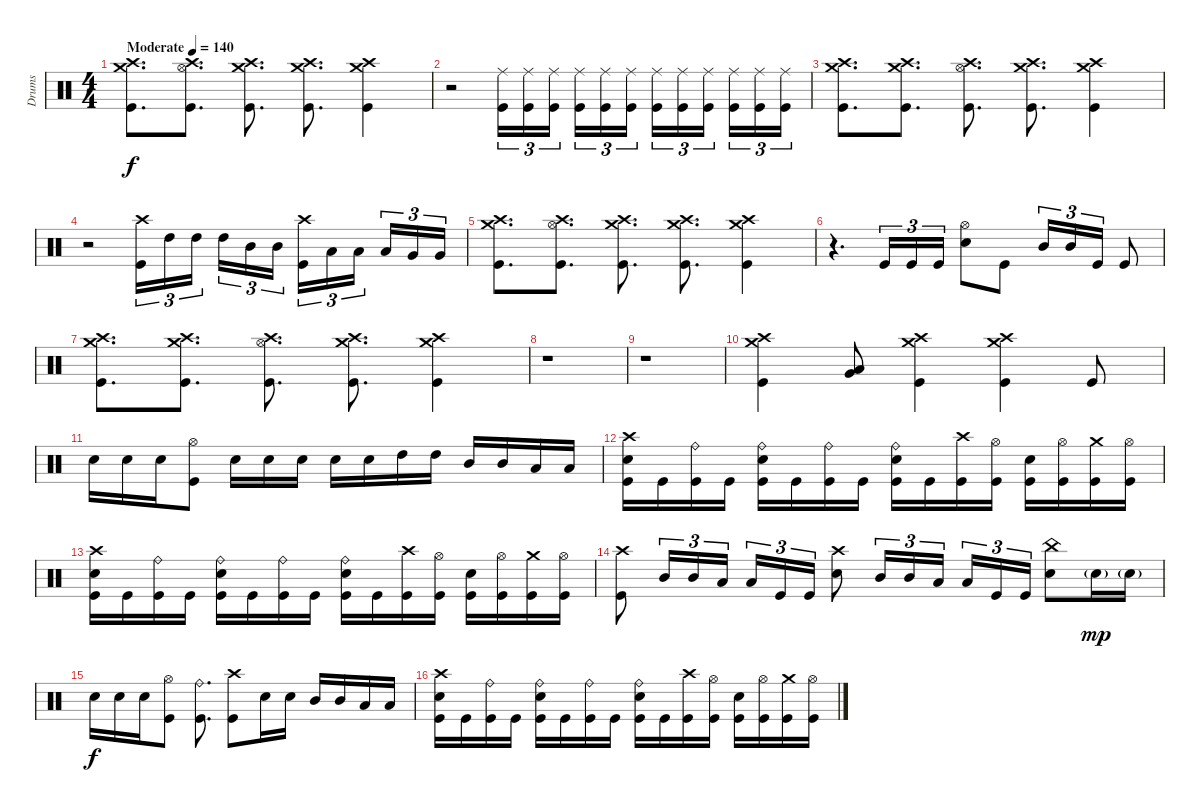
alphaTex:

\track ("Drums" "Drums") {instrument percussion}
\staff {score}
\articulation defaults
\ts (4 4)
\tempo (140 "Moderate")
\clef neutral
\ks c
("Crash high (hit)" "Crash medium (hit)" "Kick (hit)").8{d dy f} ("Crash high (hit)" "Hi-Hat (open)" "Kick (hit)").8{d} ("Crash high (hit)" "Crash medium (hit)" "Kick (hit)").8{d} ("Crash high (hit)" "Crash medium (hit)" "Kick (hit)").8{d} ("Crash high (hit)" "Crash medium (hit)" "Kick (hit)").4 |
r.2 ("Ride (middle)" "Kick (hit)").16{tu (3 2)} ("Ride (middle)" "Kick (hit)").16{tu (3 2)} ("Ride (middle)" "Kick (hit)").16{tu (3 2) beam splitsecondary} ("Ride (middle)" "Kick (hit)").16{tu (3 2)} ("Ride (middle)" "Kick (hit)").16{tu (3 2)} ("Ride (middle)" "Kick (hit)").16{tu (3 2)} ("Ride (middle)" "Kick (hit)").16{tu (3 2)} ("Ride (middle)" "Kick (hit)").16{tu (3 2)} ("Ride (middle)" "Kick (hit)").16{tu (3 2) beam splitsecondary} ("Ride (middle)" "Kick (hit)").16{tu (3 2)} ("Ride (middle)" "Kick (hit)").16{tu (3 2)} ("Ride (middle)" "Kick (hit)").16{tu (3 2)} |
("Crash high (hit)" "Crash medium (hit)" "Kick (hit)").8{d} ("Crash high (hit)" "Crash medium (hit)" "Kick (hit)").8{d} ("Crash high (hit)" "Hi-Hat (open)" "Kick (hit)").8{d} ("Crash high (hit)" "Crash medium (hit)" "Kick (hit)").8{d} ("Crash high (hit)" "Crash medium (hit)" "Kick (hit)").4 |
r.2 ("Crash high (hit)" "Kick (hit)").16{tu (3 2)} "High Tom (hit)".16{tu (3 2)} "High Tom (hit)".16{tu (3 2) beam splitsecondary} "High Tom (hit)".16{tu (3 2)} "Mid Tom (hit)".16{tu (3 2)} "Mid Tom (hit)".16{tu (3 2)} ("Crash high (hit)" "Kick (hit)").16{tu (3 2)} "Low Tom (hit)".16{tu (3 2)} "Low Tom (hit)".16{tu (3 2) beam splitsecondary} "Low Tom (hit)".16{tu (3 2)} "Very Low Tom (hit)".16{tu (3 2)} "Very Low Tom (hit)".16{tu (3 2)} |
("Crash high (hit)" "Crash medium (hit)" "Kick (hit)").8{d} ("Crash high (hit)" "Hi-Hat (open)" "Kick (hit)").8{d} ("Crash high (hit)" "Crash medium (hit)" "Kick (hit)").8{d} ("Crash high (hit)" "Crash medium (hit)" "Kick (hit)").8{d} ("Crash high (hit)" "Crash medium (hit)" "Kick (hit)").4 |
r.4{d} "Kick (hit)".16{tu (3 2)} "Kick (hit)".16{tu (3 2)} "Kick (hit)".16{tu (3 2)} ("Hi-Hat (open)" "Snare (hit) 2").8 "Kick (hit)".8 "Mid Tom (hit)".16{tu (3 2)} "Mid Tom (hit)".16{tu (3 2)} "Kick (hit)".16{tu (3 2)} "Kick (hit)".8 |
("Crash high (hit)" "Crash medium (hit)" "Kick (hit)").8{d} ("Crash high (hit)" "Crash medium (hit)" "Kick (hit)").8{d} ("Crash high (hit)" "Hi-Hat (open)" "Kick (hit)").8{d} ("Crash high (hit)" "Crash medium (hit)" "Kick (hit)").8{d} ("Crash high (hit)" "Crash medium (hit)" "Kick (hit)").4 |
r.1 |
r.1 |
("Crash high (hit)" "Crash medium (hit)" "Kick (hit)").4 ("Very Low Tom (hit)" "Low Tom (hit)").8 ("Crash high (hit)" "Crash medium (hit)" "Kick (hit)").4 ("Crash high (hit)" "Crash medium (hit)" "Kick (hit)").4 "Kick (hit)".8 |
"Snare (hit) 2".16 "Snare (hit) 2".16 "Snare (hit) 2".16 ("Hi-Hat (open)" "Kick (hit)").8 "Snare (hit) 2".16 "Snare (hit) 2".16 "Snare (hit) 2".16 "Snare (hit) 2".16 "Snare (hit) 2".16 "High Tom (hit)".16 "High Tom (hit)".16 "Mid Tom (hit)".16 "Mid Tom (hit)".16 "Low Tom (hit)".16 "Low Tom (hit)".16 |
("Crash high (hit)" "Snare (hit) 2" "Kick (hit)").16 "Kick (hit)".16 ("Ride (bell)" "Kick (hit)").16 "Kick (hit)".16 ("Ride (bell)" "Snare (hit) 2" "Kick (hit)").16 "Kick (hit)".16 ("Ride (bell)" "Kick (hit)").16 "Kick (hit)".16 ("Ride (bell)" "Snare (hit) 2" "Kick (hit)").16 "Kick (hit)".16 ("Crash high (hit)" "Kick (hit)").16 ("Hi-Hat (open)" "Kick (hit)").16 ("Snare (hit) 2" "Kick (hit)").16 ("Hi-Hat (open)" "Kick (hit)").16 ("Crash medium (hit)" "Kick (hit)").16 ("Hi-Hat (open)" "Kick (hit)").16 |
("Crash high (hit)" "Snare (hit) 2" "Kick (hit)").16 "Kick (hit)".16 ("Ride (bell)" "Kick (hit)").16 "Kick (hit)".16 ("Ride (bell)" "Snare (hit) 2" "Kick (hit)").16 "Kick (hit)".16 ("Ride (bell)" "Kick (hit)").16 "Kick (hit)".16 ("Ride (bell)" "Snare (hit) 2" "Kick (hit)").16 "Kick (hit)".16 ("Crash high (hit)" "Kick (hit)").16 ("Hi-Hat (open)" "Kick (hit)").16 ("Snare (hit) 2" "Kick (hit)").16 ("Hi-Hat (open)" "Kick (hit)").16 ("Crash medium (hit)" "Kick (hit)").16 ("Hi-Hat (open)" "Kick (hit)").16 |
("Crash high (hit)" "Kick (hit)").8 "Mid Tom (hit)".16{tu (3 2)} "Mid Tom (hit)".16{tu (3 2)} "Low Tom (hit)".16{tu (3 2)} "Low Tom (hit)".16{tu (3 2)} "Kick (hit)".16{tu (3 2)} "Kick (hit)".16{tu (3 2)} ("Crash high (hit)" "Snare (hit) 2").8 "Mid Tom (hit)".16{tu (3 2)} "Mid Tom (hit)".16{tu (3 2)} "Low Tom (hit)".16{tu (3 2) beam splitsecondary} "Low Tom (hit)".16{tu (3 2)} "Kick (hit)".16{tu (3 2)} "Kick (hit)".16{tu (3 2)} ("China (hit)" "Snare (hit) 2").8 "Snare (hit) 2"{g}.16{dy mp} "Snare (hit) 2"{g}.16 |
"Snare (hit) 2".16{dy f} "Snare (hit) 2".16 "Snare (hit) 2".16 ("Hi-Hat (open)" "Kick (hit)").8 ("Ride (bell)" "Kick (hit)").8{d} ("Crash high (hit)" "Kick (hit)").8 "Snare (hit) 2".16 "Snare (hit) 2".16 "Mid Tom (hit)".16 "Mid Tom (hit)".16 "Low Tom (hit)".16 "Low Tom (hit)".16 |
("Crash high (hit)" "Snare (hit) 2" "Kick (hit)").16 "Kick (hit)".16 ("Ride (bell)" "Kick (hit)").16 "Kick (hit)".16 ("Ride (bell)" "Snare (hit) 2" "Kick (hit)").16 "Kick (hit)".16 ("Ride (bell)" "Kick (hit)").16 "Kick (hit)".16 ("Ride (bell)" "Snare (hit) 2" "Kick (hit)").16 "Kick (hit)".16 ("Crash high (hit)" "Kick (hit)").16 ("Hi-Hat (open)" "Kick (hit)").16 ("Snare (hit) 2" "Kick (hit)").16 ("Hi-Hat (open)" "Kick (hit)").16 ("Crash medium (hit)" "Kick (hit)").16 ("Hi-Hat (open)" "Kick (hit)").16
